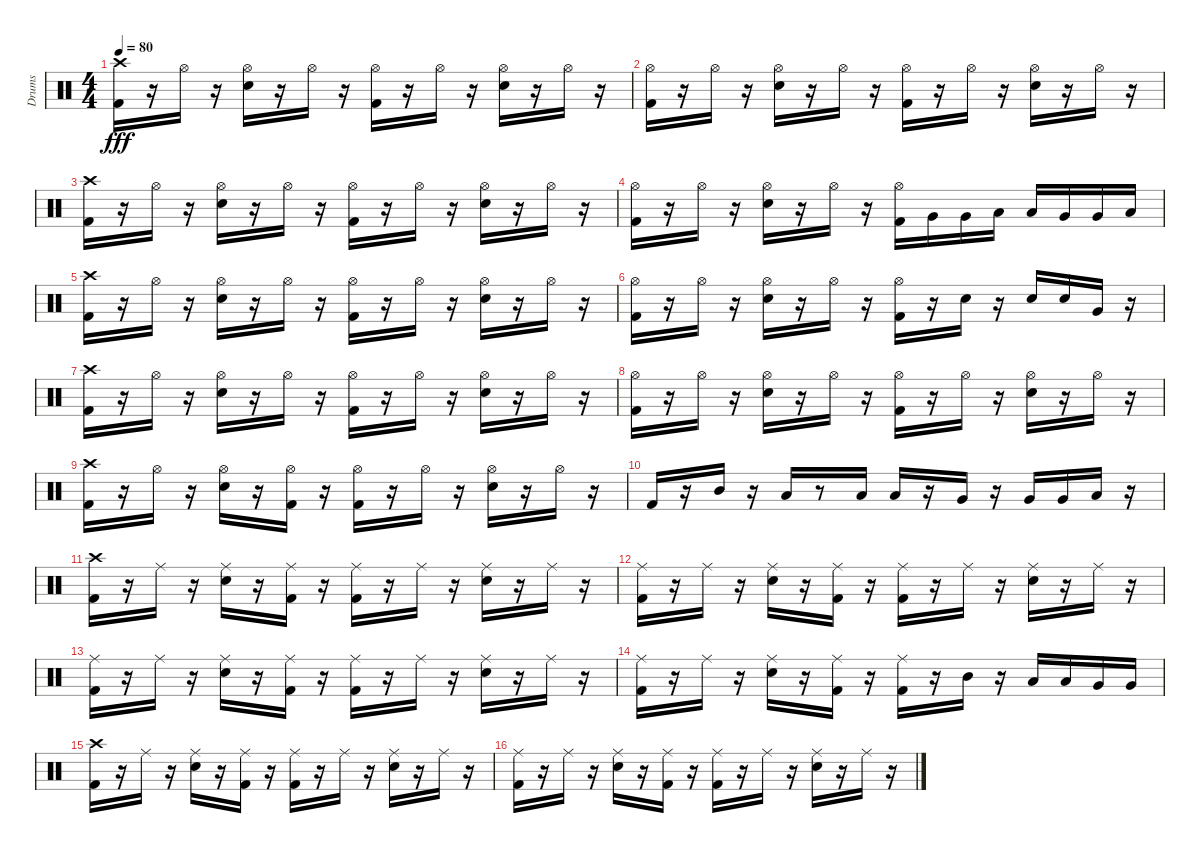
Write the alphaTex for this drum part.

\track ("Drums" "Drums") {instrument percussion}
\staff {score}
\articulation defaults
\ts (4 4)
\tempo 80
\clef neutral
\ks c
("Crash high (hit)" "Kick (hit) 2").16{dy fff} r.16 "Hi-Hat (open)".16 r.16 ("Hi-Hat (open)" "Electric Snare (hit)").16 r.16 "Hi-Hat (open)".16 r.16 ("Hi-Hat (open)" "Kick (hit) 2").16 r.16 "Hi-Hat (open)".16 r.16 ("Hi-Hat (open)" "Electric Snare (hit)").16 r.16 "Hi-Hat (open)".16 r.16 |
("Hi-Hat (open)" "Kick (hit) 2").16 r.16 "Hi-Hat (open)".16 r.16 ("Hi-Hat (open)" "Electric Snare (hit)").16 r.16 "Hi-Hat (open)".16 r.16 ("Hi-Hat (open)" "Kick (hit) 2").16 r.16 "Hi-Hat (open)".16 r.16 ("Hi-Hat (open)" "Electric Snare (hit)").16 r.16 "Hi-Hat (open)".16 r.16 |
("Crash high (hit)" "Kick (hit) 2").16 r.16 "Hi-Hat (open)".16 r.16 ("Hi-Hat (open)" "Electric Snare (hit)").16 r.16 "Hi-Hat (open)".16 r.16 ("Hi-Hat (open)" "Kick (hit) 2").16 r.16 "Hi-Hat (open)".16 r.16 ("Hi-Hat (open)" "Electric Snare (hit)").16 r.16 "Hi-Hat (open)".16 r.16 |
("Kick (hit) 2" "Hi-Hat (open)").16 r.16 "Hi-Hat (open)".16 r.16 ("Electric Snare (hit)" "Hi-Hat (open)").16 r.16 "Hi-Hat (open)".16 r.16 ("Kick (hit) 2" "Hi-Hat (open)").16 "Very Low Tom (hit)".16 "Very Low Tom (hit)".16 "Low Tom (hit)".16 "Low Tom (hit)".16 "Very Low Tom (hit)".16 "Very Low Tom (hit)".16 "Low Floor Tom (hit)".16 |
("Kick (hit) 2" "Crash high (hit)").16 r.16 "Hi-Hat (open)".16 r.16 ("Electric Snare (hit)" "Hi-Hat (open)").16 r.16 "Hi-Hat (open)".16 r.16 ("Kick (hit) 2" "Hi-Hat (open)").16 r.16 "Hi-Hat (open)".16 r.16 ("Electric Snare (hit)" "Hi-Hat (open)").16 r.16 "Hi-Hat (open)".16 r.16 |
("Kick (hit) 2" "Hi-Hat (open)").16 r.16 "Hi-Hat (open)".16 r.16 ("Electric Snare (hit)" "Hi-Hat (open)").16 r.16 "Hi-Hat (open)".16 r.16 ("Kick (hit) 2" "Hi-Hat (open)").16 r.16 "Electric Snare (hit)".16 r.16 "Electric Snare (hit)".16 "Electric Snare (hit)".16 "Very Low Tom (hit)".16 r.16 |
("Crash high (hit)" "Kick (hit) 2").16 r.16 "Hi-Hat (open)".16 r.16 ("Hi-Hat (open)" "Electric Snare (hit)").16 r.16 "Hi-Hat (open)".16 r.16 ("Hi-Hat (open)" "Kick (hit) 2").16 r.16 "Hi-Hat (open)".16 r.16 ("Hi-Hat (open)" "Electric Snare (hit)").16 r.16 "Hi-Hat (open)".16 r.16 |
("Hi-Hat (open)" "Kick (hit) 2").16 r.16 "Hi-Hat (open)".16 r.16 ("Electric Snare (hit)" "Hi-Hat (open)").16 r.16 "Hi-Hat (open)".16 r.16 ("Kick (hit) 2" "Hi-Hat (open)").16 r.16 "Hi-Hat (open)".16 r.16 ("Electric Snare (hit)" "Hi-Hat (open)").16 r.16 "Hi-Hat (open)".16 r.16 |
("Kick (hit) 2" "Crash high (hit)").16 r.16 "Hi-Hat (open)".16 r.16 ("Electric Snare (hit)" "Hi-Hat (open)").16 r.16 ("Kick (hit) 2" "Hi-Hat (open)").16 r.16 ("Kick (hit) 2" "Hi-Hat (open)").16 r.16 "Hi-Hat (open)".16 r.16 ("Electric Snare (hit)" "Hi-Hat (open)").16 r.16 "Hi-Hat (open)".16 r.16 |
"Kick (hit) 2".16 r.16 "Mid Tom (hit)".16 r.16 "Low Tom (hit)".16 r.8 "Low Tom (hit)".16 "Low Tom (hit)".16 r.16 "Very Low Tom (hit)".16 r.16 "Very Low Tom (hit)".16 "Very Low Tom (hit)".16 "Low Floor Tom (hit)".16 r.16 |
("Kick (hit) 2" "Crash high (hit)").16 r.16 "Ride (middle)".16 r.16 ("Ride (middle)" "Electric Snare (hit)").16 r.16 ("Ride (middle)" "Kick (hit) 2").16 r.16 ("Ride (middle)" "Kick (hit) 2").16 r.16 "Ride (middle)".16 r.16 ("Ride (middle)" "Electric Snare (hit)").16 r.16 "Ride (middle)".16 r.16 |
("Kick (hit) 2" "Ride (middle)").16 r.16 "Ride (middle)".16 r.16 ("Electric Snare (hit)" "Ride (middle)").16 r.16 ("Kick (hit) 2" "Ride (middle)").16 r.16 ("Kick (hit) 2" "Ride (middle)").16 r.16 "Ride (middle)".16 r.16 ("Electric Snare (hit)" "Ride (middle)").16 r.16 "Ride (middle)".16 r.16 |
("Ride (middle)" "Kick (hit) 2").16 r.16 "Ride (middle)".16 r.16 ("Ride (middle)" "Electric Snare (hit)").16 r.16 ("Ride (middle)" "Kick (hit) 2").16 r.16 ("Ride (middle)" "Kick (hit) 2").16 r.16 "Ride (middle)".16 r.16 ("Ride (middle)" "Electric Snare (hit)").16 r.16 "Ride (middle)".16 r.16 |
("Ride (middle)" "Kick (hit) 2").16 r.16 "Ride (middle)".16 r.16 ("Ride (middle)" "Electric Snare (hit)").16 r.16 ("Ride (middle)" "Kick (hit) 2").16 r.16 ("Kick (hit) 2" "Ride (middle)").16 r.16 "Mid Tom (hit)".16 r.16 "Low Tom (hit)".16 "Low Tom (hit)".16 "Very Low Tom (hit)".16 "Very Low Tom (hit)".16 |
("Crash high (hit)" "Kick (hit) 2").16 r.16 "Ride (middle)".16 r.16 ("Electric Snare (hit)" "Ride (middle)").16 r.16 ("Kick (hit) 2" "Ride (middle)").16 r.16 ("Kick (hit) 2" "Ride (middle)").16 r.16 "Ride (middle)".16 r.16 ("Electric Snare (hit)" "Ride (middle)").16 r.16 "Ride (middle)".16 r.16 |
("Ride (middle)" "Kick (hit) 2").16 r.16 "Ride (middle)".16 r.16 ("Ride (middle)" "Electric Snare (hit)").16 r.16 ("Ride (middle)" "Kick (hit) 2").16 r.16 ("Ride (middle)" "Kick (hit) 2").16 r.16 "Ride (middle)".16 r.16 ("Ride (middle)" "Electric Snare (hit)").16 r.16 "Ride (middle)".16 r.16
